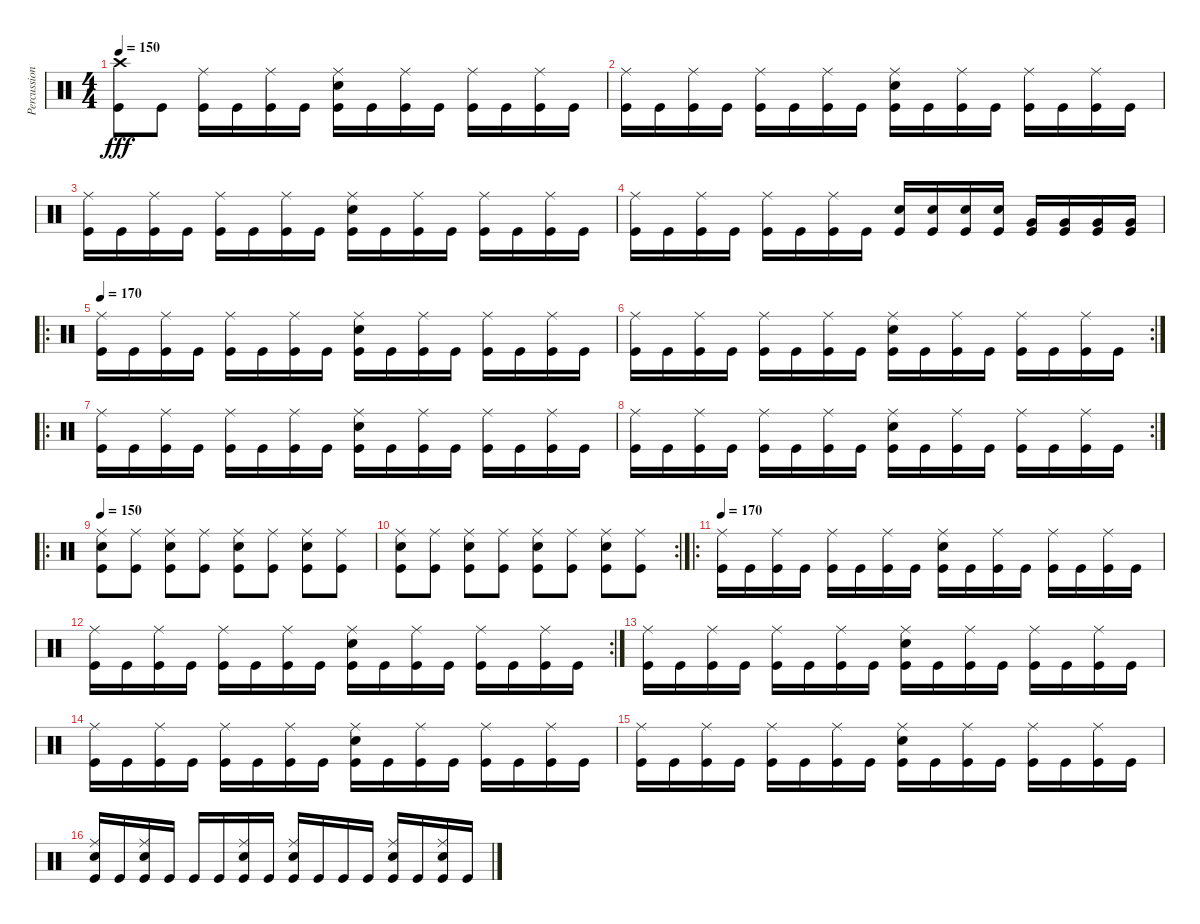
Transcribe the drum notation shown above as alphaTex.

\track ("Percussioni" "Percussion") {instrument percussion}
\staff {score}
\articulation defaults
\ts (4 4)
\tempo 150
\clef neutral
\ks c
("Crash high (hit)" "Kick (hit)").8{dy fff} "Kick (hit)".8 ("Ride (middle)" "Kick (hit)").16 "Kick (hit)".16 ("Ride (middle)" "Kick (hit)").16 "Kick (hit)".16 ("Ride (middle)" "Snare (hit) 2" "Kick (hit)").16 "Kick (hit)".16 ("Ride (middle)" "Kick (hit)").16 "Kick (hit)".16 ("Ride (middle)" "Kick (hit)").16 "Kick (hit)".16 ("Ride (middle)" "Kick (hit)").16 "Kick (hit)".16 |
("Ride (middle)" "Kick (hit)").16 "Kick (hit)".16 ("Ride (middle)" "Kick (hit)").16 "Kick (hit)".16 ("Ride (middle)" "Kick (hit)").16 "Kick (hit)".16 ("Ride (middle)" "Kick (hit)").16 "Kick (hit)".16 ("Ride (middle)" "Snare (hit) 2" "Kick (hit)").16 "Kick (hit)".16 ("Ride (middle)" "Kick (hit)").16 "Kick (hit)".16 ("Ride (middle)" "Kick (hit)").16 "Kick (hit)".16 ("Ride (middle)" "Kick (hit)").16 "Kick (hit)".16 |
("Ride (middle)" "Kick (hit)").16 "Kick (hit)".16 ("Ride (middle)" "Kick (hit)").16 "Kick (hit)".16 ("Ride (middle)" "Kick (hit)").16 "Kick (hit)".16 ("Ride (middle)" "Kick (hit)").16 "Kick (hit)".16 ("Ride (middle)" "Snare (hit) 2" "Kick (hit)").16 "Kick (hit)".16 ("Ride (middle)" "Kick (hit)").16 "Kick (hit)".16 ("Ride (middle)" "Kick (hit)").16 "Kick (hit)".16 ("Ride (middle)" "Kick (hit)").16 "Kick (hit)".16 |
("Ride (middle)" "Kick (hit)").16 "Kick (hit)".16 ("Ride (middle)" "Kick (hit)").16 "Kick (hit)".16 ("Ride (middle)" "Kick (hit)").16 "Kick (hit)".16 ("Ride (middle)" "Kick (hit)").16 "Kick (hit)".16 ("Snare (hit) 2" "Kick (hit)").16 ("Snare (hit) 2" "Kick (hit)").16 ("Snare (hit) 2" "Kick (hit)").16 ("Snare (hit) 2" "Kick (hit)").16 ("Very Low Tom (hit)" "Kick (hit)").16 ("Very Low Tom (hit)" "Kick (hit)").16 ("Very Low Tom (hit)" "Kick (hit)").16 ("Very Low Tom (hit)" "Kick (hit)").16 |
\ro
\tempo 170
("Ride (middle)" "Kick (hit)").16 "Kick (hit)".16 ("Ride (middle)" "Kick (hit)").16 "Kick (hit)".16 ("Ride (middle)" "Kick (hit)").16 "Kick (hit)".16 ("Ride (middle)" "Kick (hit)").16 "Kick (hit)".16 ("Ride (middle)" "Snare (hit) 2" "Kick (hit)").16 "Kick (hit)".16 ("Ride (middle)" "Kick (hit)").16 "Kick (hit)".16 ("Ride (middle)" "Kick (hit)").16 "Kick (hit)".16 ("Ride (middle)" "Kick (hit)").16 "Kick (hit)".16 |
\rc 2
("Ride (middle)" "Kick (hit)").16 "Kick (hit)".16 ("Ride (middle)" "Kick (hit)").16 "Kick (hit)".16 ("Ride (middle)" "Kick (hit)").16 "Kick (hit)".16 ("Ride (middle)" "Kick (hit)").16 "Kick (hit)".16 ("Ride (middle)" "Snare (hit) 2" "Kick (hit)").16 "Kick (hit)".16 ("Ride (middle)" "Kick (hit)").16 "Kick (hit)".16 ("Ride (middle)" "Kick (hit)").16 "Kick (hit)".16 ("Ride (middle)" "Kick (hit)").16 "Kick (hit)".16 |
\ro
("Ride (middle)" "Kick (hit)").16 "Kick (hit)".16 ("Ride (middle)" "Kick (hit)").16 "Kick (hit)".16 ("Ride (middle)" "Kick (hit)").16 "Kick (hit)".16 ("Ride (middle)" "Kick (hit)").16 "Kick (hit)".16 ("Ride (middle)" "Snare (hit) 2" "Kick (hit)").16 "Kick (hit)".16 ("Ride (middle)" "Kick (hit)").16 "Kick (hit)".16 ("Ride (middle)" "Kick (hit)").16 "Kick (hit)".16 ("Ride (middle)" "Kick (hit)").16 "Kick (hit)".16 |
\rc 2
("Ride (middle)" "Kick (hit)").16 "Kick (hit)".16 ("Ride (middle)" "Kick (hit)").16 "Kick (hit)".16 ("Ride (middle)" "Kick (hit)").16 "Kick (hit)".16 ("Ride (middle)" "Kick (hit)").16 "Kick (hit)".16 ("Ride (middle)" "Snare (hit) 2" "Kick (hit)").16 "Kick (hit)".16 ("Ride (middle)" "Kick (hit)").16 "Kick (hit)".16 ("Ride (middle)" "Kick (hit)").16 "Kick (hit)".16 ("Ride (middle)" "Kick (hit)").16 "Kick (hit)".16 |
\ro
\tempo 150
("Ride (middle)" "Snare (hit) 2" "Kick (hit)").8 ("Ride (middle)" "Kick (hit)").8 ("Ride (middle)" "Snare (hit) 2" "Kick (hit)").8 ("Ride (middle)" "Kick (hit)").8 ("Ride (middle)" "Snare (hit) 2" "Kick (hit)").8 ("Ride (middle)" "Kick (hit)").8 ("Ride (middle)" "Snare (hit) 2" "Kick (hit)").8 ("Ride (middle)" "Kick (hit)").8 |
\rc 2
("Ride (middle)" "Snare (hit) 2" "Kick (hit)").8 ("Ride (middle)" "Kick (hit)").8 ("Ride (middle)" "Snare (hit) 2" "Kick (hit)").8 ("Ride (middle)" "Kick (hit)").8 ("Ride (middle)" "Snare (hit) 2" "Kick (hit)").8 ("Ride (middle)" "Kick (hit)").8 ("Ride (middle)" "Snare (hit) 2" "Kick (hit)").8 ("Ride (middle)" "Kick (hit)").8 |
\ro
\tempo 170
("Ride (middle)" "Kick (hit)").16 "Kick (hit)".16 ("Ride (middle)" "Kick (hit)").16 "Kick (hit)".16 ("Ride (middle)" "Kick (hit)").16 "Kick (hit)".16 ("Ride (middle)" "Kick (hit)").16 "Kick (hit)".16 ("Ride (middle)" "Snare (hit) 2" "Kick (hit)").16 "Kick (hit)".16 ("Ride (middle)" "Kick (hit)").16 "Kick (hit)".16 ("Ride (middle)" "Kick (hit)").16 "Kick (hit)".16 ("Ride (middle)" "Kick (hit)").16 "Kick (hit)".16 |
\rc 2
("Ride (middle)" "Kick (hit)").16 "Kick (hit)".16 ("Ride (middle)" "Kick (hit)").16 "Kick (hit)".16 ("Ride (middle)" "Kick (hit)").16 "Kick (hit)".16 ("Ride (middle)" "Kick (hit)").16 "Kick (hit)".16 ("Ride (middle)" "Snare (hit) 2" "Kick (hit)").16 "Kick (hit)".16 ("Ride (middle)" "Kick (hit)").16 "Kick (hit)".16 ("Ride (middle)" "Kick (hit)").16 "Kick (hit)".16 ("Ride (middle)" "Kick (hit)").16 "Kick (hit)".16 |
("Ride (middle)" "Kick (hit)").16 "Kick (hit)".16 ("Ride (middle)" "Kick (hit)").16 "Kick (hit)".16 ("Ride (middle)" "Kick (hit)").16 "Kick (hit)".16 ("Ride (middle)" "Kick (hit)").16 "Kick (hit)".16 ("Ride (middle)" "Snare (hit) 2" "Kick (hit)").16 "Kick (hit)".16 ("Ride (middle)" "Kick (hit)").16 "Kick (hit)".16 ("Ride (middle)" "Kick (hit)").16 "Kick (hit)".16 ("Ride (middle)" "Kick (hit)").16 "Kick (hit)".16 |
("Ride (middle)" "Kick (hit)").16 "Kick (hit)".16 ("Ride (middle)" "Kick (hit)").16 "Kick (hit)".16 ("Ride (middle)" "Kick (hit)").16 "Kick (hit)".16 ("Ride (middle)" "Kick (hit)").16 "Kick (hit)".16 ("Ride (middle)" "Snare (hit) 2" "Kick (hit)").16 "Kick (hit)".16 ("Ride (middle)" "Kick (hit)").16 "Kick (hit)".16 ("Ride (middle)" "Kick (hit)").16 "Kick (hit)".16 ("Ride (middle)" "Kick (hit)").16 "Kick (hit)".16 |
("Ride (middle)" "Kick (hit)").16 "Kick (hit)".16 ("Ride (middle)" "Kick (hit)").16 "Kick (hit)".16 ("Ride (middle)" "Kick (hit)").16 "Kick (hit)".16 ("Ride (middle)" "Kick (hit)").16 "Kick (hit)".16 ("Ride (middle)" "Snare (hit) 2" "Kick (hit)").16 "Kick (hit)".16 ("Ride (middle)" "Kick (hit)").16 "Kick (hit)".16 ("Ride (middle)" "Kick (hit)").16 "Kick (hit)".16 ("Ride (middle)" "Kick (hit)").16 "Kick (hit)".16 |
("Ride (middle)" "Snare (hit) 2" "Kick (hit)").16 "Kick (hit)".16 ("Ride (middle)" "Snare (hit) 2" "Kick (hit)").16 "Kick (hit)".16 "Kick (hit)".16 "Kick (hit)".16 ("Ride (middle)" "Snare (hit) 2" "Kick (hit)").16 "Kick (hit)".16 ("Ride (middle)" "Snare (hit) 2" "Kick (hit)").16 "Kick (hit)".16 "Kick (hit)".16 "Kick (hit)".16 ("Ride (middle)" "Snare (hit) 2" "Kick (hit)").16 "Kick (hit)".16 ("Ride (middle)" "Snare (hit) 2" "Kick (hit)").16 "Kick (hit)".16
